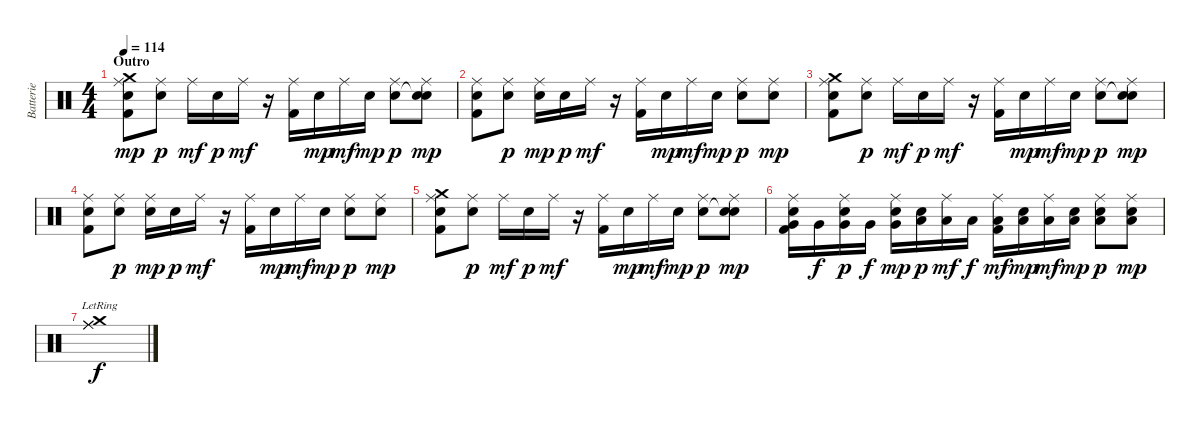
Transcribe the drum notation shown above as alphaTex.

\track ("Batterie" "Batterie") {instrument percussion}
\staff {score}
\articulation defaults
\ts (4 4)
\section ("" "Outro")
\tempo 114
\clef neutral
\ks c
("Ride (middle)" "Crash medium (hit)" "Kick (hit) 2" "Snare (hit) 2").8{dy mp} ("Ride (middle)" "Snare (hit) 2").8{dy p} "Ride (middle)".16{dy mf} "Snare (hit) 2".16{dy p} "Ride (middle)".16{dy mf} r.16 ("Ride (middle)" "Kick (hit) 2").16 "Snare (hit) 2".16{dy mp} "Ride (middle)".16{dy mf} "Snare (hit) 2".16{dy mp} ("Ride (middle)" "Snare (hit) 2").8{dy p} ("Ride (middle)" "Snare (hit)"{t} "Snare (hit) 2").8{dy mp} |
("Ride (middle)" "Kick (hit) 2" "Snare (hit) 2").8 ("Ride (middle)" "Snare (hit) 2").8{dy p} ("Ride (middle)" "Snare (hit) 2").16{dy mp} "Snare (hit) 2".16{dy p} "Ride (middle)".16{dy mf} r.16 ("Ride (middle)" "Kick (hit) 2").16 "Snare (hit) 2".16{dy mp} "Ride (middle)".16{dy mf} "Snare (hit) 2".16{dy mp} ("Ride (middle)" "Snare (hit) 2").8{dy p} ("Ride (middle)" "Snare (hit) 2").8{dy mp} |
("Ride (middle)" "Crash medium (hit)" "Kick (hit) 2" "Snare (hit) 2").8 ("Ride (middle)" "Snare (hit) 2").8{dy p} "Ride (middle)".16{dy mf} "Snare (hit) 2".16{dy p} "Ride (middle)".16{dy mf} r.16 ("Ride (middle)" "Kick (hit) 2").16 "Snare (hit) 2".16{dy mp} "Ride (middle)".16{dy mf} "Snare (hit) 2".16{dy mp} ("Ride (middle)" "Snare (hit) 2").8{dy p} ("Ride (middle)" "Snare (hit)"{t} "Snare (hit) 2").8{dy mp} |
("Ride (middle)" "Kick (hit) 2" "Snare (hit) 2").8 ("Ride (middle)" "Snare (hit) 2").8{dy p} ("Ride (middle)" "Snare (hit) 2").16{dy mp} "Snare (hit) 2".16{dy p} "Ride (middle)".16{dy mf} r.16 ("Ride (middle)" "Kick (hit) 2").16 "Snare (hit) 2".16{dy mp} "Ride (middle)".16{dy mf} "Snare (hit) 2".16{dy mp} ("Ride (middle)" "Snare (hit) 2").8{dy p} ("Ride (middle)" "Snare (hit) 2").8{dy mp} |
("Ride (middle)" "Crash medium (hit)" "Kick (hit) 2" "Snare (hit) 2").8 ("Ride (middle)" "Snare (hit) 2").8{dy p} "Ride (middle)".16{dy mf} "Snare (hit) 2".16{dy p} "Ride (middle)".16{dy mf} r.16 ("Ride (middle)" "Kick (hit) 2").16 "Snare (hit) 2".16{dy mp} "Ride (middle)".16{dy mf} "Snare (hit) 2".16{dy mp} ("Ride (middle)" "Snare (hit) 2").8{dy p} ("Ride (middle)" "Snare (hit)"{t} "Snare (hit) 2").8{dy mp} |
("Ride (middle)" "Kick (hit) 2" "Snare (hit) 2" "Very Low Tom (hit)").16 "Very Low Tom (hit)".16{dy f} ("Ride (middle)" "Snare (hit) 2" "Very Low Tom (hit)").16{dy p} "Very Low Tom (hit)".16{dy f} ("Ride (middle)" "Snare (hit) 2" "Very Low Tom (hit)").16{dy mp} ("Snare (hit) 2" "Low Floor Tom (hit)").16{dy p} ("Ride (middle)" "Low Floor Tom (hit)").16{dy mf} "Low Floor Tom (hit)".16{dy f} ("Ride (middle)" "Kick (hit) 2" "Low Floor Tom (hit)").16{dy mf} ("Snare (hit) 2" "Low Floor Tom (hit)").16{dy mp} ("Ride (middle)" "Low Tom (hit)").16{dy mf} ("Snare (hit) 2" "Low Tom (hit)").16{dy mp} ("Ride (middle)" "Snare (hit) 2" "Low Tom (hit)").8{dy p} ("Ride (middle)" "Snare (hit) 2" "Low Tom (hit)").8{dy mp} |
("Crash medium (hit)"{lr} "Ride (middle)"{lr} "Ride (middle)"{lr} "Ride (middle)"{lr}).1{dy f}
